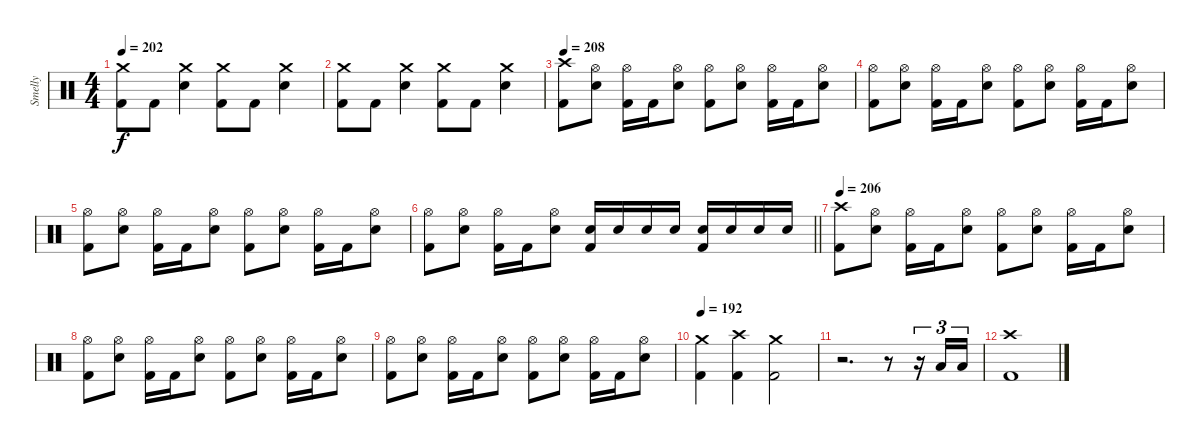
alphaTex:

\track ("Smelly" "Smelly") {instrument percussion}
\staff {score}
\articulation defaults
\ts (4 4)
\tempo 202
\clef neutral
\ks c
("Crash medium (hit)" "Kick (hit) 2").8{dy f} "Kick (hit) 2".8 ("Crash medium (hit)" "Electric Snare (hit)").4 ("Crash medium (hit)" "Kick (hit) 2").8 "Kick (hit) 2".8 ("Crash medium (hit)" "Electric Snare (hit)").4 |
("Crash medium (hit)" "Kick (hit) 2").8 "Kick (hit) 2".8 ("Crash medium (hit)" "Electric Snare (hit)").4 ("Crash medium (hit)" "Kick (hit) 2").8 "Kick (hit) 2".8 ("Crash medium (hit)" "Electric Snare (hit)").4 |
\tempo 208
("Crash high (hit)" "Kick (hit) 2").8 ("Hi-Hat (open)" "Electric Snare (hit)").8 ("Hi-Hat (open)" "Kick (hit) 2").16 "Kick (hit) 2".16 ("Hi-Hat (open)" "Electric Snare (hit)").8 ("Hi-Hat (open)" "Kick (hit) 2").8 ("Hi-Hat (open)" "Electric Snare (hit)").8 ("Hi-Hat (open)" "Kick (hit) 2").16 "Kick (hit) 2".16 ("Hi-Hat (open)" "Electric Snare (hit)").8 |
("Hi-Hat (open)" "Kick (hit) 2").8 ("Hi-Hat (open)" "Electric Snare (hit)").8 ("Hi-Hat (open)" "Kick (hit) 2").16 "Kick (hit) 2".16 ("Hi-Hat (open)" "Electric Snare (hit)").8 ("Hi-Hat (open)" "Kick (hit) 2").8 ("Hi-Hat (open)" "Electric Snare (hit)").8 ("Hi-Hat (open)" "Kick (hit) 2").16 "Kick (hit) 2".16 ("Hi-Hat (open)" "Electric Snare (hit)").8 |
("Hi-Hat (open)" "Kick (hit) 2").8 ("Hi-Hat (open)" "Electric Snare (hit)").8 ("Hi-Hat (open)" "Kick (hit) 2").16 "Kick (hit) 2".16 ("Hi-Hat (open)" "Electric Snare (hit)").8 ("Hi-Hat (open)" "Kick (hit) 2").8 ("Hi-Hat (open)" "Electric Snare (hit)").8 ("Hi-Hat (open)" "Kick (hit) 2").16 "Kick (hit) 2".16 ("Hi-Hat (open)" "Electric Snare (hit)").8 |
\barLineRight lightlight
("Hi-Hat (open)" "Kick (hit) 2").8 ("Hi-Hat (open)" "Electric Snare (hit)").8 ("Hi-Hat (open)" "Kick (hit) 2").16 "Kick (hit) 2".16 ("Hi-Hat (open)" "Electric Snare (hit)").8 ("Electric Snare (hit)" "Kick (hit) 2").16 "Electric Snare (hit)".16 "Electric Snare (hit)".16 "Electric Snare (hit)".16 ("Electric Snare (hit)" "Kick (hit) 2").16 "Electric Snare (hit)".16 "Electric Snare (hit)".16 "Electric Snare (hit)".16 |
\section ("" "")
\tempo 206
("Crash high (hit)" "Kick (hit) 2").8 ("Hi-Hat (open)" "Electric Snare (hit)").8 ("Hi-Hat (open)" "Kick (hit) 2").16 "Kick (hit) 2".16 ("Hi-Hat (open)" "Electric Snare (hit)").8 ("Hi-Hat (open)" "Kick (hit) 2").8 ("Hi-Hat (open)" "Electric Snare (hit)").8 ("Hi-Hat (open)" "Kick (hit) 2").16 "Kick (hit) 2".16 ("Hi-Hat (open)" "Electric Snare (hit)").8 |
("Hi-Hat (open)" "Kick (hit) 2").8 ("Hi-Hat (open)" "Electric Snare (hit)").8 ("Hi-Hat (open)" "Kick (hit) 2").16 "Kick (hit) 2".16 ("Hi-Hat (open)" "Electric Snare (hit)").8 ("Hi-Hat (open)" "Kick (hit) 2").8 ("Hi-Hat (open)" "Electric Snare (hit)").8 ("Hi-Hat (open)" "Kick (hit) 2").16 "Kick (hit) 2".16 ("Hi-Hat (open)" "Electric Snare (hit)").8 |
("Hi-Hat (open)" "Kick (hit) 2").8 ("Hi-Hat (open)" "Electric Snare (hit)").8 ("Hi-Hat (open)" "Kick (hit) 2").16 "Kick (hit) 2".16 ("Hi-Hat (open)" "Electric Snare (hit)").8 ("Hi-Hat (open)" "Kick (hit) 2").8 ("Hi-Hat (open)" "Electric Snare (hit)").8 ("Hi-Hat (open)" "Kick (hit) 2").16 "Kick (hit) 2".16 ("Hi-Hat (open)" "Electric Snare (hit)").8 |
\tempo 192
("Crash medium (hit)" "Kick (hit) 2").4 ("Crash high (hit)" "Kick (hit) 2").4 ("Crash medium (hit)" "Kick (hit) 2").2 |
r.2{d} r.8 r.16{tu (3 2)} "Low Floor Tom (hit)".16{tu (3 2)} "Low Floor Tom (hit)".16{tu (3 2)} |
("Crash high (hit)" "Kick (hit) 2").1
